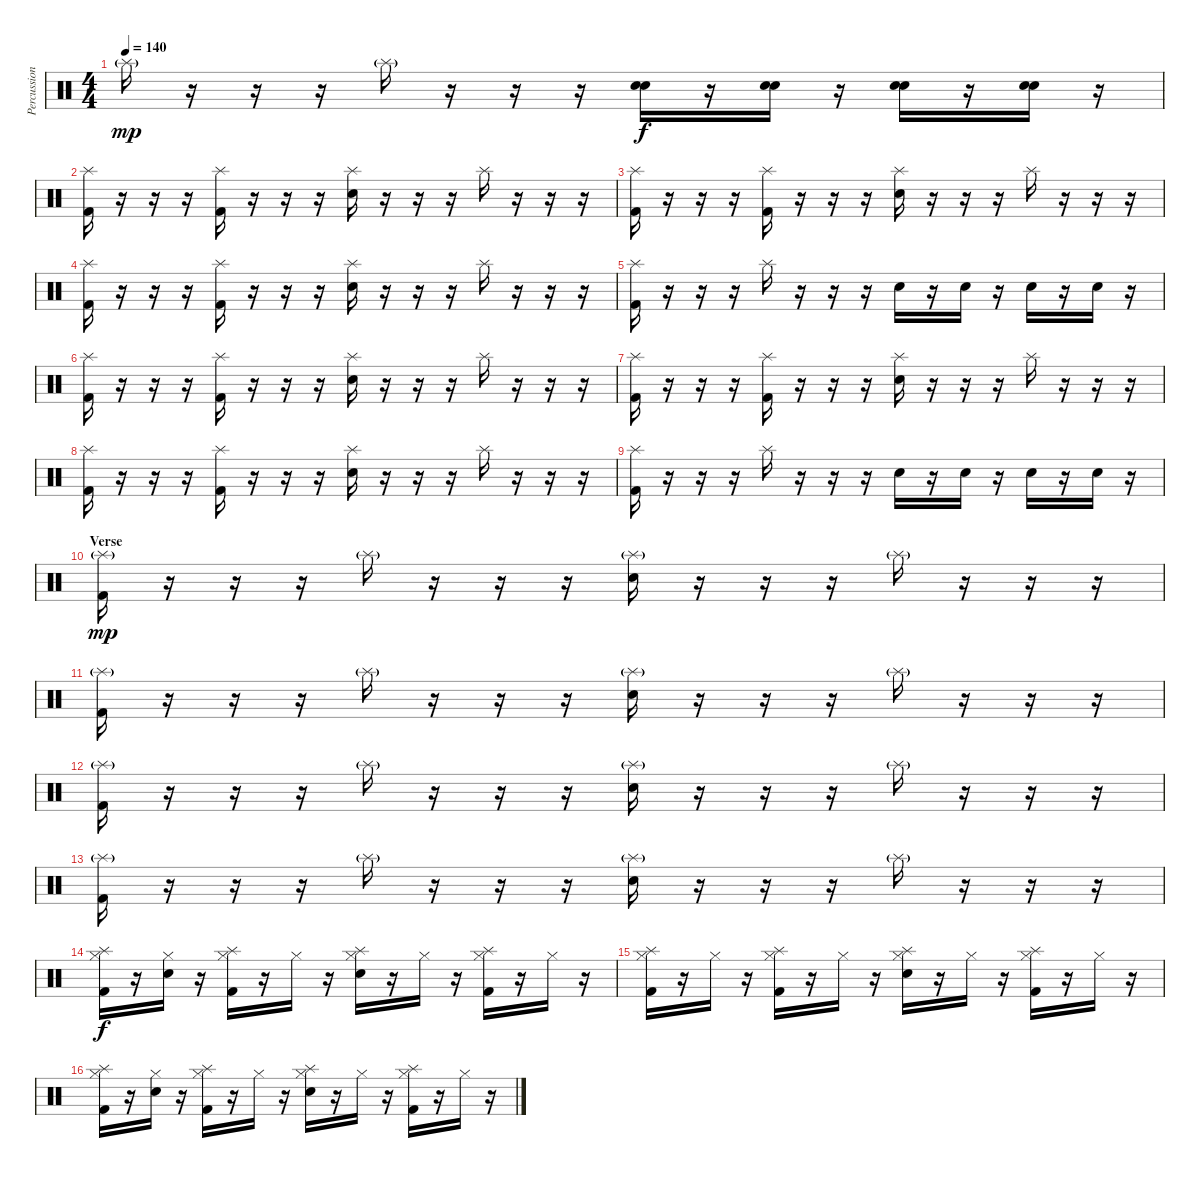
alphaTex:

\track ("Percussion" "Percussion") {instrument percussion}
\staff {score}
\articulation defaults
\ts (4 4)
\tempo 140
\clef neutral
\ks c "Splash (hit)"{g}.16{dy mp}
r.16 r.16 r.16 "Splash (hit)"{g}.16 r.16 r.16 r.16 ("Snare (hit) 2" "Electric Snare (hit)").16{dy f} r.16 ("Snare (hit) 2" "Electric Snare (hit)").16 r.16 ("Snare (hit) 2" "Electric Snare (hit)").16 r.16 ("Snare (hit) 2" "Electric Snare (hit)").16 r.16 |
("Kick (hit) 2" "Splash (hit)").16 r.16 r.16 r.16 ("Kick (hit) 2" "Splash (hit)").16 r.16 r.16 r.16 ("Snare (hit) 2" "Splash (hit)").16 r.16 r.16 r.16 "Splash (hit)".16 r.16 r.16 r.16 |
("Kick (hit) 2" "Splash (hit)").16 r.16 r.16 r.16 ("Kick (hit) 2" "Splash (hit)").16 r.16 r.16 r.16 ("Snare (hit) 2" "Splash (hit)").16 r.16 r.16 r.16 "Splash (hit)".16 r.16 r.16 r.16 |
("Kick (hit) 2" "Splash (hit)").16 r.16 r.16 r.16 ("Kick (hit) 2" "Splash (hit)").16 r.16 r.16 r.16 ("Snare (hit) 2" "Splash (hit)").16 r.16 r.16 r.16 "Splash (hit)".16 r.16 r.16 r.16 |
("Kick (hit) 2" "Splash (hit)").16 r.16 r.16 r.16 "Splash (hit)".16 r.16 r.16 r.16 "Snare (hit) 2".16 r.16 "Snare (hit) 2".16 r.16 "Snare (hit) 2".16 r.16 "Snare (hit) 2".16 r.16 |
("Kick (hit) 2" "Splash (hit)").16 r.16 r.16 r.16 ("Kick (hit) 2" "Splash (hit)").16 r.16 r.16 r.16 ("Snare (hit) 2" "Splash (hit)").16 r.16 r.16 r.16 "Splash (hit)".16 r.16 r.16 r.16 |
("Kick (hit) 2" "Splash (hit)").16 r.16 r.16 r.16 ("Kick (hit) 2" "Splash (hit)").16 r.16 r.16 r.16 ("Snare (hit) 2" "Splash (hit)").16 r.16 r.16 r.16 "Splash (hit)".16 r.16 r.16 r.16 |
("Kick (hit) 2" "Splash (hit)").16 r.16 r.16 r.16 ("Kick (hit) 2" "Splash (hit)").16 r.16 r.16 r.16 ("Snare (hit) 2" "Splash (hit)").16 r.16 r.16 r.16 "Splash (hit)".16 r.16 r.16 r.16 |
("Kick (hit) 2" "Splash (hit)").16 r.16 r.16 r.16 "Splash (hit)".16 r.16 r.16 r.16 "Snare (hit) 2".16 r.16 "Snare (hit) 2".16 r.16 "Snare (hit) 2".16 r.16 "Snare (hit) 2".16 r.16 |
\section ("" "Verse")
("Kick (hit) 2" "Splash (hit)"{g}).16{dy mp} r.16 r.16 r.16 "Splash (hit)"{g}.16 r.16 r.16 r.16 ("Snare (hit) 2" "Splash (hit)"{g}).16 r.16 r.16 r.16 "Splash (hit)"{g}.16 r.16 r.16 r.16 |
("Kick (hit) 2" "Splash (hit)"{g}).16 r.16 r.16 r.16 "Splash (hit)"{g}.16 r.16 r.16 r.16 ("Snare (hit) 2" "Splash (hit)"{g}).16 r.16 r.16 r.16 "Splash (hit)"{g}.16 r.16 r.16 r.16 |
("Kick (hit) 2" "Splash (hit)"{g}).16 r.16 r.16 r.16 "Splash (hit)"{g}.16 r.16 r.16 r.16 ("Snare (hit) 2" "Splash (hit)"{g}).16 r.16 r.16 r.16 "Splash (hit)"{g}.16 r.16 r.16 r.16 |
("Kick (hit) 2" "Splash (hit)"{g}).16 r.16 r.16 r.16 "Splash (hit)"{g}.16 r.16 r.16 r.16 ("Snare (hit) 2" "Splash (hit)"{g}).16 r.16 r.16 r.16 "Splash (hit)"{g}.16 r.16 r.16 r.16 |
("Kick (hit) 2" "Splash (hit)" "Hi-Hat (closed)").16{dy f} r.16 ("Snare (hit) 2" "Hi-Hat (closed)").16 r.16 ("Kick (hit) 2" "Splash (hit)" "Hi-Hat (closed)").16 r.16 "Hi-Hat (closed)".16 r.16 ("Snare (hit) 2" "Splash (hit)" "Hi-Hat (closed)").16 r.16 "Hi-Hat (closed)".16 r.16 ("Kick (hit) 2" "Splash (hit)" "Hi-Hat (closed)").16 r.16 "Hi-Hat (closed)".16 r.16 |
("Kick (hit) 2" "Splash (hit)" "Hi-Hat (closed)").16 r.16 "Hi-Hat (closed)".16 r.16 ("Kick (hit) 2" "Splash (hit)" "Hi-Hat (closed)").16 r.16 "Hi-Hat (closed)".16 r.16 ("Snare (hit) 2" "Splash (hit)" "Hi-Hat (closed)").16 r.16 "Hi-Hat (closed)".16 r.16 ("Kick (hit) 2" "Splash (hit)" "Hi-Hat (closed)").16 r.16 "Hi-Hat (closed)".16 r.16 |
("Kick (hit) 2" "Splash (hit)" "Hi-Hat (closed)").16 r.16 ("Snare (hit) 2" "Hi-Hat (closed)").16 r.16 ("Kick (hit) 2" "Splash (hit)" "Hi-Hat (closed)").16 r.16 "Hi-Hat (closed)".16 r.16 ("Snare (hit) 2" "Splash (hit)" "Hi-Hat (closed)").16 r.16 "Hi-Hat (closed)".16 r.16 ("Kick (hit) 2" "Splash (hit)" "Hi-Hat (closed)").16 r.16 "Hi-Hat (closed)".16 r.16
